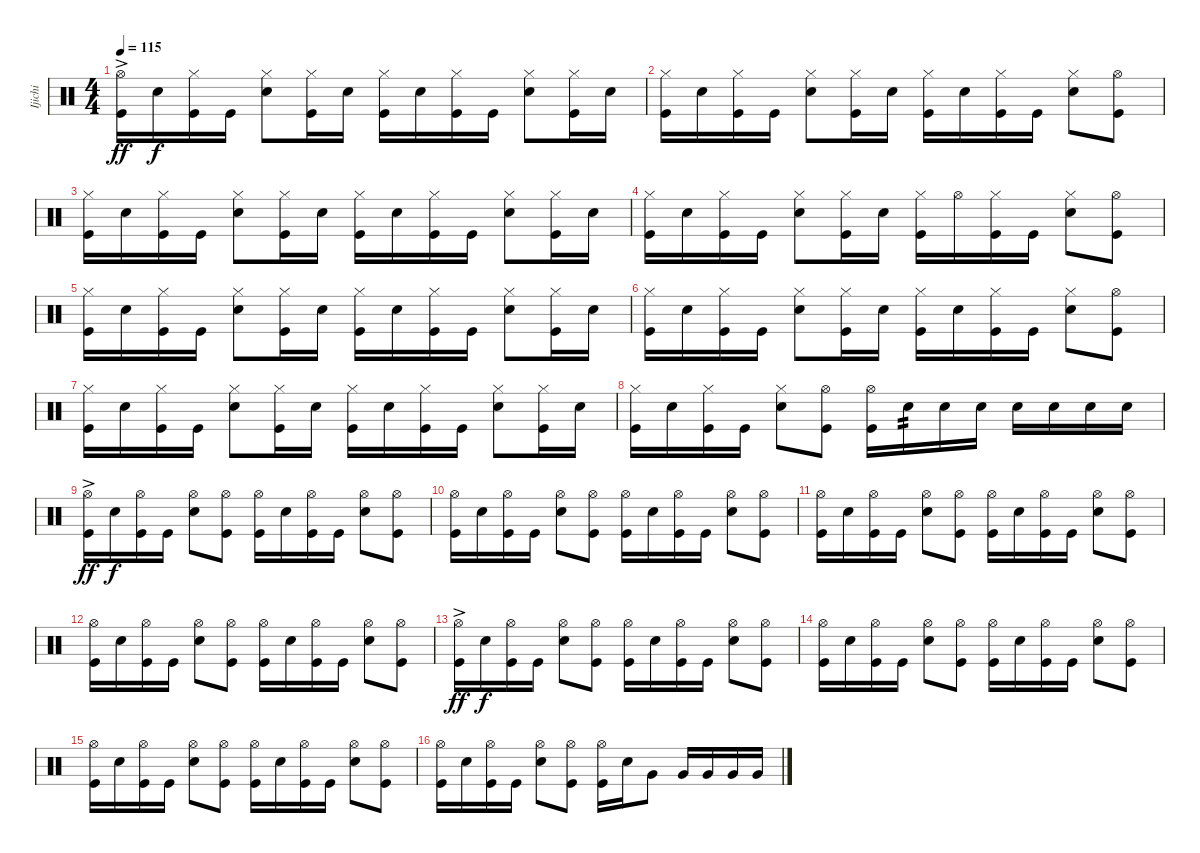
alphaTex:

\track ("Ijichi" "Ijichi") {instrument percussion}
\staff {score}
\articulation defaults
\ts (4 4)
\tempo 115
\clef neutral
\ks c
("Hi-Hat (open)"{ac} "Kick (hit)").16{dy ff} "Snare (hit) 2".16{dy f} ("Hi-Hat (closed)" "Kick (hit)").16 "Kick (hit)".16 ("Hi-Hat (closed)" "Snare (hit) 2").8 ("Hi-Hat (closed)" "Kick (hit)").16 "Snare (hit) 2".16 ("Hi-Hat (closed)" "Kick (hit)").16 "Snare (hit) 2".16 ("Hi-Hat (closed)" "Kick (hit)").16 "Kick (hit)".16 ("Hi-Hat (closed)" "Snare (hit) 2").8 ("Hi-Hat (closed)" "Kick (hit)").16 "Snare (hit) 2".16 |
("Hi-Hat (closed)" "Kick (hit)").16 "Snare (hit) 2".16 ("Hi-Hat (closed)" "Kick (hit)").16 "Kick (hit)".16 ("Hi-Hat (closed)" "Snare (hit) 2").8 ("Hi-Hat (closed)" "Kick (hit)").16 "Snare (hit) 2".16 ("Hi-Hat (closed)" "Kick (hit)").16 "Snare (hit) 2".16 ("Hi-Hat (closed)" "Kick (hit)").16 "Kick (hit)".16 ("Hi-Hat (closed)" "Snare (hit) 2").8 ("Hi-Hat (open)" "Kick (hit)").8 |
("Hi-Hat (closed)" "Kick (hit)").16 "Snare (hit) 2".16 ("Hi-Hat (closed)" "Kick (hit)").16 "Kick (hit)".16 ("Hi-Hat (closed)" "Snare (hit) 2").8 ("Hi-Hat (closed)" "Kick (hit)").16 "Snare (hit) 2".16 ("Hi-Hat (closed)" "Kick (hit)").16 "Snare (hit) 2".16 ("Hi-Hat (closed)" "Kick (hit)").16 "Kick (hit)".16 ("Hi-Hat (closed)" "Snare (hit) 2").8 ("Hi-Hat (closed)" "Kick (hit)").16 "Snare (hit) 2".16 |
("Hi-Hat (closed)" "Kick (hit)").16 "Snare (hit) 2".16 ("Hi-Hat (closed)" "Kick (hit)").16 "Kick (hit)".16 ("Hi-Hat (closed)" "Snare (hit) 2").8 ("Hi-Hat (closed)" "Kick (hit)").16 "Snare (hit) 2".16 ("Hi-Hat (closed)" "Kick (hit)").16 "Hi-Hat (open)".16 ("Hi-Hat (closed)" "Kick (hit)").16 "Kick (hit)".16 ("Hi-Hat (closed)" "Snare (hit) 2").8 ("Hi-Hat (open)" "Kick (hit)").8 |
("Hi-Hat (closed)" "Kick (hit)").16 "Snare (hit) 2".16 ("Hi-Hat (closed)" "Kick (hit)").16 "Kick (hit)".16 ("Hi-Hat (closed)" "Snare (hit) 2").8 ("Hi-Hat (closed)" "Kick (hit)").16 "Snare (hit) 2".16 ("Hi-Hat (closed)" "Kick (hit)").16 "Snare (hit) 2".16 ("Hi-Hat (closed)" "Kick (hit)").16 "Kick (hit)".16 ("Hi-Hat (closed)" "Snare (hit) 2").8 ("Hi-Hat (closed)" "Kick (hit)").16 "Snare (hit) 2".16 |
("Hi-Hat (closed)" "Kick (hit)").16 "Snare (hit) 2".16 ("Hi-Hat (closed)" "Kick (hit)").16 "Kick (hit)".16 ("Hi-Hat (closed)" "Snare (hit) 2").8 ("Hi-Hat (closed)" "Kick (hit)").16 "Snare (hit) 2".16 ("Hi-Hat (closed)" "Kick (hit)").16 "Snare (hit) 2".16 ("Hi-Hat (closed)" "Kick (hit)").16 "Kick (hit)".16 ("Hi-Hat (closed)" "Snare (hit) 2").8 ("Hi-Hat (open)" "Kick (hit)").8 |
("Hi-Hat (closed)" "Kick (hit)").16 "Snare (hit) 2".16 ("Hi-Hat (closed)" "Kick (hit)").16 "Kick (hit)".16 ("Hi-Hat (closed)" "Snare (hit) 2").8 ("Hi-Hat (closed)" "Kick (hit)").16 "Snare (hit) 2".16 ("Hi-Hat (closed)" "Kick (hit)").16 "Snare (hit) 2".16 ("Hi-Hat (closed)" "Kick (hit)").16 "Kick (hit)".16 ("Hi-Hat (closed)" "Snare (hit) 2").8 ("Hi-Hat (closed)" "Kick (hit)").16 "Snare (hit) 2".16 |
("Hi-Hat (closed)" "Kick (hit)").16 "Snare (hit) 2".16 ("Hi-Hat (closed)" "Kick (hit)").16 "Kick (hit)".16 ("Hi-Hat (closed)" "Snare (hit) 2").8 ("Hi-Hat (open)" "Kick (hit)").8 ("Hi-Hat (open)" "Kick (hit)").16 "Snare (hit) 2".16{tp 2} "Snare (hit) 2".16 "Snare (hit) 2".16 "Snare (hit) 2".16 "Snare (hit) 2".16 "Snare (hit) 2".16 "Snare (hit) 2".16 |
("Hi-Hat (open)"{ac} "Kick (hit)").16{dy ff} "Snare (hit) 2".16{dy f} ("Hi-Hat (open)" "Kick (hit)").16 "Kick (hit)".16 ("Hi-Hat (open)" "Snare (hit) 2").8 ("Hi-Hat (open)" "Kick (hit)").8 ("Hi-Hat (open)" "Kick (hit)").16 "Snare (hit) 2".16 ("Hi-Hat (open)" "Kick (hit)").16 "Kick (hit)".16 ("Hi-Hat (open)" "Snare (hit) 2").8 ("Hi-Hat (open)" "Kick (hit)").8 |
("Hi-Hat (open)" "Kick (hit)").16 "Snare (hit) 2".16 ("Hi-Hat (open)" "Kick (hit)").16 "Kick (hit)".16 ("Hi-Hat (open)" "Snare (hit) 2").8 ("Hi-Hat (open)" "Kick (hit)").8 ("Hi-Hat (open)" "Kick (hit)").16 "Snare (hit) 2".16 ("Hi-Hat (open)" "Kick (hit)").16 "Kick (hit)".16 ("Hi-Hat (open)" "Snare (hit) 2").8 ("Hi-Hat (open)" "Kick (hit)").8 |
("Hi-Hat (open)" "Kick (hit)").16 "Snare (hit) 2".16 ("Hi-Hat (open)" "Kick (hit)").16 "Kick (hit)".16 ("Hi-Hat (open)" "Snare (hit) 2").8 ("Hi-Hat (open)" "Kick (hit)").8 ("Hi-Hat (open)" "Kick (hit)").16 "Snare (hit) 2".16 ("Hi-Hat (open)" "Kick (hit)").16 "Kick (hit)".16 ("Hi-Hat (open)" "Snare (hit) 2").8 ("Hi-Hat (open)" "Kick (hit)").8 |
("Hi-Hat (open)" "Kick (hit)").16 "Snare (hit) 2".16 ("Hi-Hat (open)" "Kick (hit)").16 "Kick (hit)".16 ("Hi-Hat (open)" "Snare (hit) 2").8 ("Hi-Hat (open)" "Kick (hit)").8 ("Hi-Hat (open)" "Kick (hit)").16 "Snare (hit) 2".16 ("Hi-Hat (open)" "Kick (hit)").16 "Kick (hit)".16 ("Hi-Hat (open)" "Snare (hit) 2").8 ("Hi-Hat (open)" "Kick (hit)").8 |
("Hi-Hat (open)"{ac} "Kick (hit)").16{dy ff} "Snare (hit) 2".16{dy f} ("Hi-Hat (open)" "Kick (hit)").16 "Kick (hit)".16 ("Hi-Hat (open)" "Snare (hit) 2").8 ("Hi-Hat (open)" "Kick (hit)").8 ("Hi-Hat (open)" "Kick (hit)").16 "Snare (hit) 2".16 ("Hi-Hat (open)" "Kick (hit)").16 "Kick (hit)".16 ("Hi-Hat (open)" "Snare (hit) 2").8 ("Hi-Hat (open)" "Kick (hit)").8 |
("Hi-Hat (open)" "Kick (hit)").16 "Snare (hit) 2".16 ("Hi-Hat (open)" "Kick (hit)").16 "Kick (hit)".16 ("Hi-Hat (open)" "Snare (hit) 2").8 ("Hi-Hat (open)" "Kick (hit)").8 ("Hi-Hat (open)" "Kick (hit)").16 "Snare (hit) 2".16 ("Hi-Hat (open)" "Kick (hit)").16 "Kick (hit)".16 ("Hi-Hat (open)" "Snare (hit) 2").8 ("Hi-Hat (open)" "Kick (hit)").8 |
("Hi-Hat (open)" "Kick (hit)").16 "Snare (hit) 2".16 ("Hi-Hat (open)" "Kick (hit)").16 "Kick (hit)".16 ("Hi-Hat (open)" "Snare (hit) 2").8 ("Hi-Hat (open)" "Kick (hit)").8 ("Hi-Hat (open)" "Kick (hit)").16 "Snare (hit) 2".16 ("Hi-Hat (open)" "Kick (hit)").16 "Kick (hit)".16 ("Hi-Hat (open)" "Snare (hit) 2").8 ("Hi-Hat (open)" "Kick (hit)").8 |
("Hi-Hat (open)" "Kick (hit)").16 "Snare (hit) 2".16 ("Hi-Hat (open)" "Kick (hit)").16 "Kick (hit)".16 ("Hi-Hat (open)" "Snare (hit) 2").8 ("Hi-Hat (open)" "Kick (hit)").8 ("Hi-Hat (open)" "Kick (hit)").16 "Snare (hit) 2".16 "Very Low Tom (hit)".8 "Very Low Tom (hit)".16 "Very Low Tom (hit)".16 "Very Low Tom (hit)".16 "Very Low Tom (hit)".16
